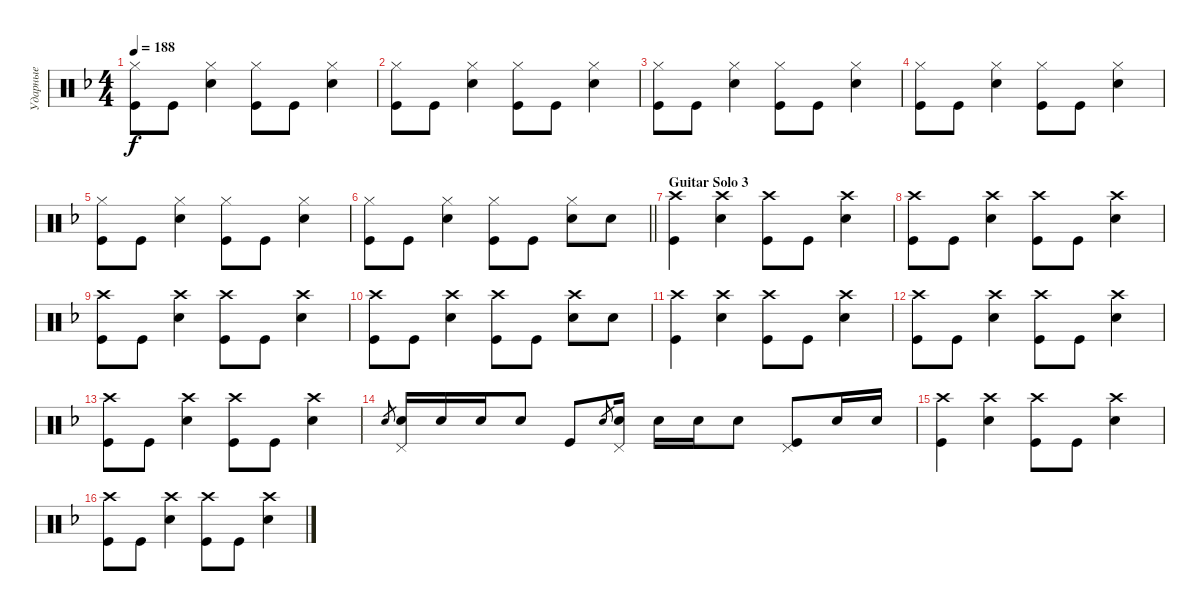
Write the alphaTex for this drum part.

\track ("Ударные" "Ударные") {instrument percussion}
\staff {score}
\articulation defaults
\ts (4 4)
\tempo 188
\clef neutral
\ks dminor
("Kick (hit)" "Hi-Hat (closed)").8{dy f} "Kick (hit)".8 ("Snare (hit) 2" "Hi-Hat (closed)").4 ("Kick (hit)" "Hi-Hat (closed)").8 "Kick (hit)".8 ("Hi-Hat (closed)" "Snare (hit) 2").4 |
("Kick (hit)" "Hi-Hat (closed)").8 "Kick (hit)".8 ("Snare (hit) 2" "Hi-Hat (closed)").4 ("Kick (hit)" "Hi-Hat (closed)").8 "Kick (hit)".8 ("Hi-Hat (closed)" "Snare (hit) 2").4 |
("Kick (hit)" "Hi-Hat (closed)").8 "Kick (hit)".8 ("Snare (hit) 2" "Hi-Hat (closed)").4 ("Kick (hit)" "Hi-Hat (closed)").8 "Kick (hit)".8 ("Hi-Hat (closed)" "Snare (hit) 2").4 |
("Kick (hit)" "Hi-Hat (closed)").8 "Kick (hit)".8 ("Snare (hit) 2" "Hi-Hat (closed)").4 ("Kick (hit)" "Hi-Hat (closed)").8 "Kick (hit)".8 ("Hi-Hat (closed)" "Snare (hit) 2").4 |
("Kick (hit)" "Hi-Hat (closed)").8 "Kick (hit)".8 ("Snare (hit) 2" "Hi-Hat (closed)").4 ("Kick (hit)" "Hi-Hat (closed)").8 "Kick (hit)".8 ("Hi-Hat (closed)" "Snare (hit) 2").4 |
\barLineRight lightlight
("Kick (hit)" "Hi-Hat (closed)").8 "Kick (hit)".8 ("Snare (hit) 2" "Hi-Hat (closed)").4 ("Kick (hit)" "Hi-Hat (closed)").8 "Kick (hit)".8 ("Hi-Hat (closed)" "Snare (hit) 2").8 "Snare (hit) 2".8 |
\section ("" "Guitar Solo 3")
("Kick (hit)" "Crash high (hit)").4 ("Snare (hit) 2" "Crash high (hit)").4 ("Kick (hit)" "Crash high (hit)").8 "Kick (hit)".8 ("Snare (hit) 2" "Crash high (hit)").4 |
("Kick (hit)" "Crash high (hit)").8 "Kick (hit)".8 ("Snare (hit) 2" "Crash high (hit)").4 ("Kick (hit)" "Crash high (hit)").8 "Kick (hit)".8 ("Snare (hit) 2" "Crash high (hit)").4 |
("Kick (hit)" "Crash high (hit)").8 "Kick (hit)".8 ("Snare (hit) 2" "Crash high (hit)").4 ("Kick (hit)" "Crash high (hit)").8 "Kick (hit)".8 ("Snare (hit) 2" "Crash high (hit)").4 |
("Kick (hit)" "Crash high (hit)").8 "Kick (hit)".8 ("Snare (hit) 2" "Crash high (hit)").4 ("Kick (hit)" "Crash high (hit)").8 "Kick (hit)".8 ("Snare (hit) 2" "Crash high (hit)").8 "Snare (hit) 2".8 |
("Kick (hit)" "Crash high (hit)").4 ("Snare (hit) 2" "Crash high (hit)").4 ("Kick (hit)" "Crash high (hit)").8 "Kick (hit)".8 ("Snare (hit) 2" "Crash high (hit)").4 |
("Kick (hit)" "Crash high (hit)").8 "Kick (hit)".8 ("Snare (hit) 2" "Crash high (hit)").4 ("Kick (hit)" "Crash high (hit)").8 "Kick (hit)".8 ("Snare (hit) 2" "Crash high (hit)").4 |
("Kick (hit)" "Crash high (hit)").8 "Kick (hit)".8 ("Snare (hit) 2" "Crash high (hit)").4 ("Kick (hit)" "Crash high (hit)").8 "Kick (hit)".8 ("Snare (hit) 2" "Crash high (hit)").4 |
"Snare (hit) 2".8{gr} ("Snare (hit) 2" "Pedal Hi-Hat (hit)").16 "Snare (hit) 2".16 "Snare (hit) 2".16 "Snare (hit) 2".8 "Kick (hit)".8 "Snare (hit) 2".8{gr} ("Snare (hit) 2" "Pedal Hi-Hat (hit)").16 "Snare (hit) 2".16 "Snare (hit) 2".16 "Snare (hit) 2".8 ("Kick (hit)" "Pedal Hi-Hat (hit)").8 "Snare (hit) 2".16 "Snare (hit) 2".16 |
("Kick (hit)" "Crash high (hit)").4 ("Snare (hit) 2" "Crash high (hit)").4 ("Kick (hit)" "Crash high (hit)").8 "Kick (hit)".8 ("Snare (hit) 2" "Crash high (hit)").4 |
("Kick (hit)" "Crash high (hit)").8 "Kick (hit)".8 ("Snare (hit) 2" "Crash high (hit)").4 ("Kick (hit)" "Crash high (hit)").8 "Kick (hit)".8 ("Snare (hit) 2" "Crash high (hit)").4
